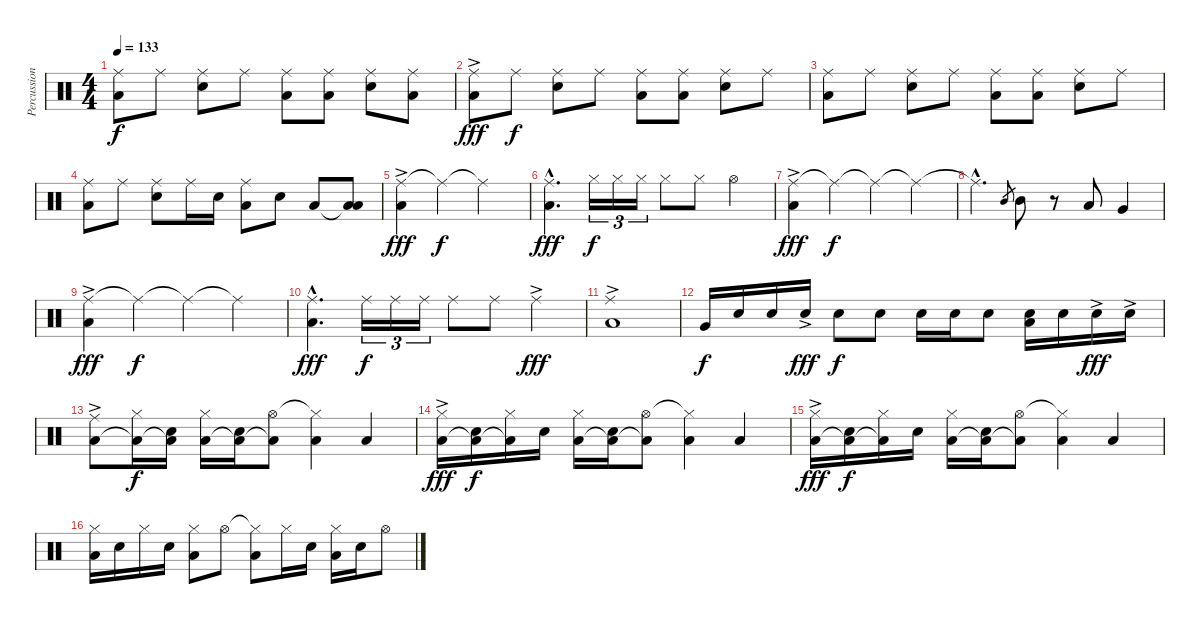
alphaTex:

\track ("Percussion" "Percussion") {instrument percussion}
\staff {score}
\articulation defaults
\ts (4 4)
\tempo 133
\clef neutral
\ks c
("Ride (middle)" "Low Floor Tom (hit)").8{dy f} "Ride (middle)".8 ("Ride (middle)" "Snare (hit) 2").8 "Ride (middle)".8 ("Ride (middle)" "Low Floor Tom (hit)").8 ("Ride (middle)" "Low Floor Tom (hit)").8 ("Ride (middle)" "Snare (hit) 2").8 ("Ride (middle)" "Low Floor Tom (hit)").8 |
("Ride (middle)"{ac} "Low Floor Tom (hit)").8{dy fff} "Ride (middle)".8{dy f} ("Ride (middle)" "Snare (hit) 2").8 "Ride (middle)".8 ("Ride (middle)" "Low Floor Tom (hit)").8 ("Ride (middle)" "Low Floor Tom (hit)").8 ("Ride (middle)" "Snare (hit) 2").8 "Ride (middle)".8 |
("Ride (middle)" "Low Floor Tom (hit)").8 "Ride (middle)".8 ("Ride (middle)" "Snare (hit) 2").8 "Ride (middle)".8 ("Ride (middle)" "Low Floor Tom (hit)").8 ("Ride (middle)" "Low Floor Tom (hit)").8 ("Ride (middle)" "Snare (hit) 2").8 "Ride (middle)".8 |
("Ride (middle)" "Low Floor Tom (hit)").8 "Ride (middle)".8 ("Ride (middle)" "Snare (hit) 2").8 "Ride (middle)".16 "Snare (hit) 2".16 ("Ride (middle)" "Low Floor Tom (hit)").8 "Snare (hit) 2".8 "Low Tom (hit)".8 ("Low Tom (hit)"{t} "Low Floor Tom (hit)").8 |
("Ride (middle)"{ac} "Low Floor Tom (hit)").4{dy fff} "Ride (middle)"{t}.4{dy f} "Ride (middle)"{t}.2 |
("Ride (middle)"{hac} "Low Floor Tom (hit)"{hac}).4{d dy fff} "Hi-Hat (closed)".16{tu (3 2) dy f} "Hi-Hat (closed)".16{tu (3 2)} "Hi-Hat (closed)".16{tu (3 2)} "Hi-Hat (closed)".8 "Hi-Hat (closed)".8 "Hi-Hat (open)".4 |
("Ride (middle)"{ac} "Low Floor Tom (hit)").4{dy fff} "Ride (middle)"{t}.4{dy f} "Ride (middle)"{t}.4 "Ride (middle)"{t}.4 |
"Ride (middle)"{hac t}.4{d} "Mid Tom (hit)".8{gr} "Mid Tom (hit)".8 r.8 "Low Tom (hit)".8 "Very Low Tom (hit)".4 |
("Ride (middle)"{ac} "Low Floor Tom (hit)").4{dy fff} "Ride (middle)"{t}.4{dy f} "Ride (middle)"{t}.4 "Ride (middle)"{t}.4 |
("Ride (middle)"{hac} "Low Floor Tom (hit)"{hac}).4{d dy fff} "Ride (middle)".16{tu (3 2) dy f} "Ride (middle)".16{tu (3 2)} "Ride (middle)".16{tu (3 2)} "Ride (middle)".8 "Ride (middle)".8 "Ride (middle)"{ac}.4{dy fff} |
("Ride (middle)"{ac} "Low Floor Tom (hit)").1 |
"Very Low Tom (hit)".16{dy f} "Snare (hit) 2".16 "Snare (hit) 2".16 "Snare (hit) 2"{ac}.16{dy fff} "Snare (hit) 2".8{dy f} "Snare (hit) 2".8 "Snare (hit) 2".16 "Snare (hit) 2".16 "Snare (hit) 2".8 ("Snare (hit) 2" "Low Floor Tom (hit)").16 "Snare (hit) 2".16 "Snare (hit) 2"{ac}.16{dy fff} "Snare (hit) 2"{ac}.16 |
("Ride (middle)"{ac} "Low Floor Tom (hit)").8 ("Hi-Hat (closed)" "Low Floor Tom (hit)"{t}).16{dy f} ("Snare (hit) 2" "Low Floor Tom (hit)"{t}).16 ("Hi-Hat (closed)" "Low Floor Tom (hit)").16 ("Snare (hit) 2" "Low Floor Tom (hit)"{t}).16 ("Hi-Hat (open)" "Low Floor Tom (hit)"{t}).8 ("Hi-Hat (closed)"{t} "Low Floor Tom (hit)").4 "Low Floor Tom (hit)".4 |
("Hi-Hat (closed)"{ac} "Low Floor Tom (hit)").16{dy fff} ("Snare (hit) 2" "Low Floor Tom (hit)"{t}).16{dy f} ("Hi-Hat (closed)" "Low Floor Tom (hit)"{t}).16 "Snare (hit) 2".16 ("Hi-Hat (closed)" "Low Floor Tom (hit)").16 ("Snare (hit) 2" "Low Floor Tom (hit)"{t}).16 ("Hi-Hat (open)" "Low Floor Tom (hit)"{t}).8 ("Hi-Hat (closed)"{t} "Low Floor Tom (hit)").4 "Low Floor Tom (hit)".4 |
("Hi-Hat (closed)"{ac} "Low Floor Tom (hit)").16{dy fff} ("Snare (hit) 2" "Low Floor Tom (hit)"{t}).16{dy f} ("Hi-Hat (closed)" "Low Floor Tom (hit)"{t}).16 "Snare (hit) 2".16 ("Hi-Hat (closed)" "Low Floor Tom (hit)").16 ("Snare (hit) 2" "Low Floor Tom (hit)"{t}).16 ("Hi-Hat (open)" "Low Floor Tom (hit)"{t}).8 ("Hi-Hat (closed)"{t} "Low Floor Tom (hit)").4 "Low Floor Tom (hit)".4 |
("Hi-Hat (closed)" "Low Floor Tom (hit)").16 "Snare (hit) 2".16 "Hi-Hat (closed)".16 "Snare (hit) 2".16 ("Hi-Hat (closed)" "Low Floor Tom (hit)").8 "Hi-Hat (open)".8 ("Hi-Hat (closed)"{t} "Low Floor Tom (hit)").8 "Hi-Hat (closed)".16 "Snare (hit) 2".16 ("Hi-Hat (closed)" "Low Floor Tom (hit)").16 "Snare (hit) 2".16 "Hi-Hat (open)".8
